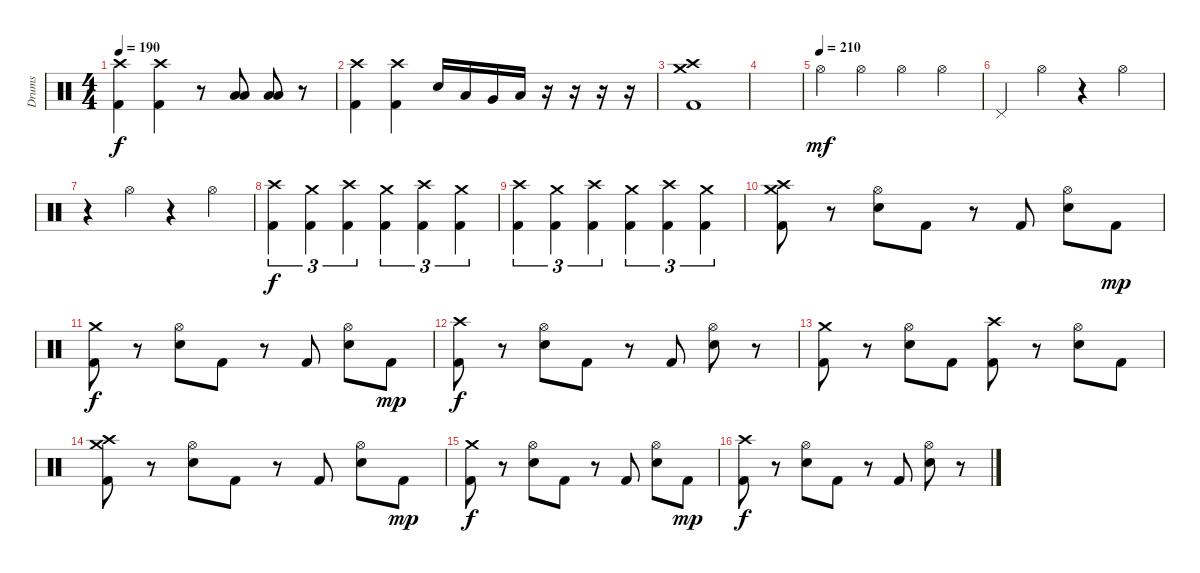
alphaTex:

\track ("Drums" "Drums") {instrument percussion}
\staff {score}
\articulation defaults
\ts (4 4)
\tempo 190
\clef neutral
\ks c
("Crash high (hit)" "Kick (hit) 2").4{dy f} ("Crash high (hit)" "Kick (hit) 2").4 r.8 ("Low Floor Tom (hit)" "Low Floor Tom (hit)").8 ("Low Floor Tom (hit)" "Low Floor Tom (hit)").8 r.8 |
("Crash high (hit)" "Kick (hit) 2").4 ("Crash high (hit)" "Kick (hit) 2").4 "Electric Snare (hit)".16 "Low Tom (hit)".16 "Very Low Tom (hit)".16 "Low Floor Tom (hit)".16 r.16 r.16 r.16 r.16 |
("Crash medium (hit)" "Crash high (hit)" "Kick (hit) 2").1 |
|
\tempo (210)
"Hi-Hat (open)".4{dy mf} "Hi-Hat (open)".4 "Hi-Hat (open)".4 "Hi-Hat (open)".4 |
"Pedal Hi-Hat (hit)".4 "Hi-Hat (open)".4 r.4 "Hi-Hat (open)".4 |
r.4 "Hi-Hat (open)".4 r.4 "Hi-Hat (open)".4 |
("Crash high (hit)" "Kick (hit) 2").4{tu (3 2) dy f} ("Crash medium (hit)" "Kick (hit) 2").4{tu (3 2)} ("Crash high (hit)" "Kick (hit) 2").4{tu (3 2)} ("Crash medium (hit)" "Kick (hit) 2").4{tu (3 2)} ("Crash high (hit)" "Kick (hit) 2").4{tu (3 2)} ("Crash medium (hit)" "Kick (hit) 2").4{tu (3 2)} |
("Crash high (hit)" "Kick (hit) 2").4{tu (3 2)} ("Crash medium (hit)" "Kick (hit) 2").4{tu (3 2)} ("Crash high (hit)" "Kick (hit) 2").4{tu (3 2)} ("Crash medium (hit)" "Kick (hit) 2").4{tu (3 2)} ("Crash high (hit)" "Kick (hit) 2").4{tu (3 2)} ("Crash medium (hit)" "Kick (hit) 2").4{tu (3 2)} |
("Crash high (hit)" "Crash medium (hit)" "Kick (hit) 2").8 r.8 ("Hi-Hat (open)" "Electric Snare (hit)").8 "Kick (hit) 2".8 r.8 "Kick (hit) 2".8 ("Hi-Hat (open)" "Electric Snare (hit)").8 "Kick (hit) 2".8{dy mp} |
("Crash medium (hit)" "Kick (hit) 2").8{dy f} r.8 ("Hi-Hat (open)" "Electric Snare (hit)").8 "Kick (hit) 2".8 r.8 "Kick (hit) 2".8 ("Hi-Hat (open)" "Electric Snare (hit)").8 "Kick (hit) 2".8{dy mp} |
("Crash high (hit)" "Kick (hit) 2").8{dy f} r.8 ("Hi-Hat (open)" "Electric Snare (hit)").8 "Kick (hit) 2".8 r.8 "Kick (hit) 2".8 ("Hi-Hat (open)" "Electric Snare (hit)").8 r.8 |
("Crash medium (hit)" "Kick (hit) 2").8 r.8 ("Hi-Hat (open)" "Electric Snare (hit)").8 "Kick (hit) 2".8 ("Crash high (hit)" "Kick (hit) 2").8 r.8 ("Hi-Hat (open)" "Electric Snare (hit)").8 "Kick (hit) 2".8 |
("Crash high (hit)" "Crash medium (hit)" "Kick (hit) 2").8 r.8 ("Hi-Hat (open)" "Electric Snare (hit)").8 "Kick (hit) 2".8 r.8 "Kick (hit) 2".8 ("Hi-Hat (open)" "Electric Snare (hit)").8 "Kick (hit) 2".8{dy mp} |
("Crash medium (hit)" "Kick (hit) 2").8{dy f} r.8 ("Hi-Hat (open)" "Electric Snare (hit)").8 "Kick (hit) 2".8 r.8 "Kick (hit) 2".8 ("Hi-Hat (open)" "Electric Snare (hit)").8 "Kick (hit) 2".8{dy mp} |
("Crash high (hit)" "Kick (hit) 2").8{dy f} r.8 ("Hi-Hat (open)" "Electric Snare (hit)").8 "Kick (hit) 2".8 r.8 "Kick (hit) 2".8 ("Hi-Hat (open)" "Electric Snare (hit)").8 r.8
